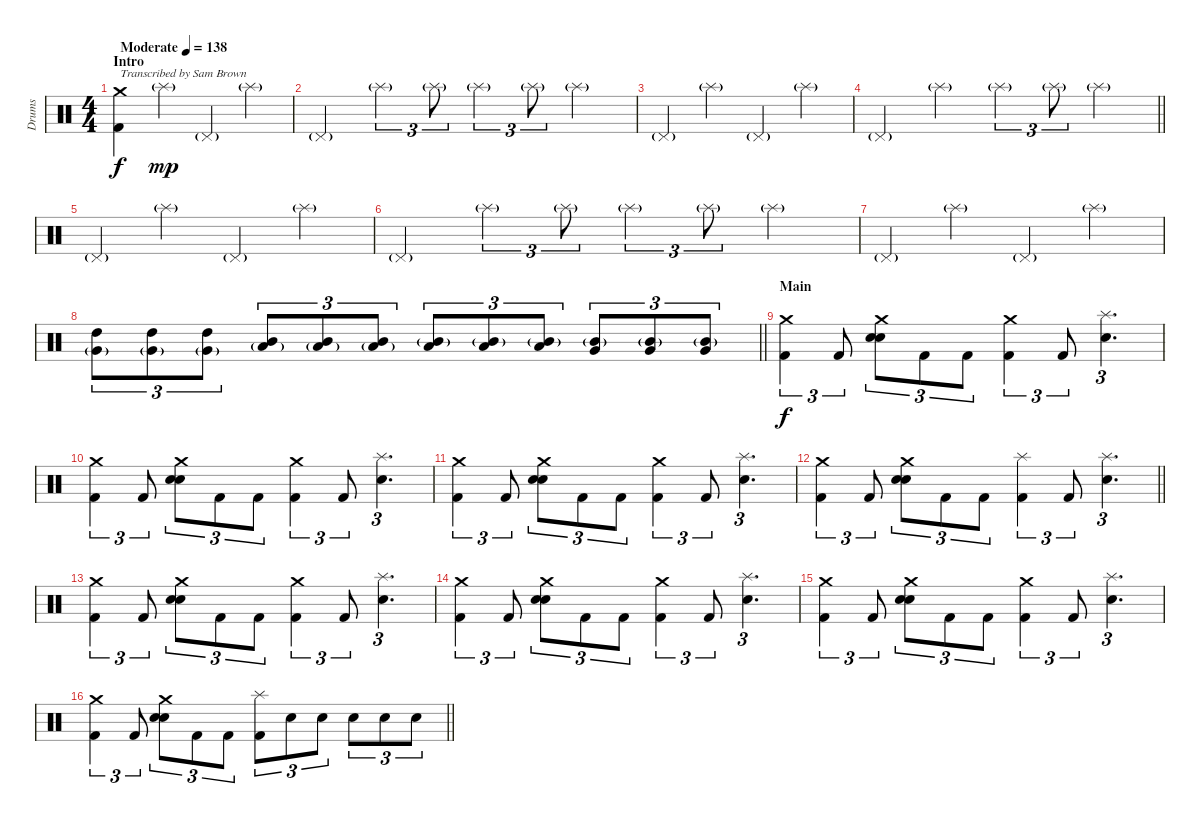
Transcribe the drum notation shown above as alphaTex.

\track ("Drums" "Drums") {instrument percussion}
\staff {score}
\articulation defaults
\ts (4 4)
\section ("" "Intro")
\tempo (138 "Moderate")
\clef neutral
\ks c
("Kick (hit) 2" "Crash medium (hit)").4{txt "Transcribed by Sam Brown" dy f} "Splash (hit)"{g}.4{dy mp} "Pedal Hi-Hat (hit)"{g}.4 "Splash (hit)"{g}.4 |
"Pedal Hi-Hat (hit)"{g}.4 "Splash (hit)"{g}.4{tu (3 2)} "Splash (hit)"{g}.8{tu (3 2)} "Splash (hit)"{g}.4{tu (3 2)} "Splash (hit)"{g}.8{tu (3 2)} "Splash (hit)"{g}.4 |
"Pedal Hi-Hat (hit)"{g}.4 "Splash (hit)"{g}.4 "Pedal Hi-Hat (hit)"{g}.4 "Splash (hit)"{g}.4 |
\barLineRight lightlight "Pedal Hi-Hat (hit)"{g}.4 "Splash (hit)"{g}.4 "Splash (hit)"{g}.4{tu (3 2)} "Splash (hit)"{g}.8{tu (3 2)} "Splash (hit)"{g}.4
|
\section ("" "")
"Pedal Hi-Hat (hit)"{g}.4 "Splash (hit)"{g}.4 "Pedal Hi-Hat (hit)"{g}.4 "Splash (hit)"{g}.4 |
"Pedal Hi-Hat (hit)"{g}.4 "Splash (hit)"{g}.4{tu (3 2)} "Splash (hit)"{g}.8{tu (3 2)} "Splash (hit)"{g}.4{tu (3 2)} "Splash (hit)"{g}.8{tu (3 2)} "Splash (hit)"{g}.4 |
"Pedal Hi-Hat (hit)"{g}.4 "Splash (hit)"{g}.4 "Pedal Hi-Hat (hit)"{g}.4 "Splash (hit)"{g}.4 |
\barLineRight lightlight
("High Tom (hit)" "Very Low Tom (hit)"{g}).8{tu (3 2)} ("High Tom (hit)" "Very Low Tom (hit)"{g}).8{tu (3 2)} ("High Tom (hit)" "Very Low Tom (hit)"{g}).8{tu (3 2)} ("Mid Tom (hit)" "Low Tom (hit)"{g}).8{tu (3 2)} ("Mid Tom (hit)" "Low Tom (hit)"{g}).8{tu (3 2)} ("Mid Tom (hit)" "Low Tom (hit)"{g}).8{tu (3 2)} ("Low Tom (hit)" "Mid Tom (hit)"{g}).8{tu (3 2)} ("Low Tom (hit)" "Mid Tom (hit)"{g}).8{tu (3 2)} ("Low Tom (hit)" "Mid Tom (hit)"{g}).8{tu (3 2)} ("Very Low Tom (hit)" "Mid Tom (hit)"{g}).8{tu (3 2)} ("Very Low Tom (hit)" "Mid Tom (hit)"{g}).8{tu (3 2)} ("Very Low Tom (hit)" "Mid Tom (hit)"{g}).8{tu (3 2)} |
\section ("" "Main")
("Kick (hit) 2" "Crash medium (hit)").4{tu (3 2) dy f} "Kick (hit) 2".8{tu (3 2)} ("Snare (hit) 2" "Snare (hit) 2" "Crash medium (hit)").8{tu (3 2)} "Kick (hit) 2".8{tu (3 2)} "Kick (hit) 2".8{tu (3 2)} ("Kick (hit) 2" "Crash medium (hit)").4{tu (3 2)} "Kick (hit) 2".8{tu (3 2)} ("Snare (hit) 2" "Splash (hit)").4{d tu (3 2)} |
("Kick (hit) 2" "Crash medium (hit)").4{tu (3 2)} "Kick (hit) 2".8{tu (3 2)} ("Snare (hit) 2" "Snare (hit) 2" "Crash medium (hit)").8{tu (3 2)} "Kick (hit) 2".8{tu (3 2)} "Kick (hit) 2".8{tu (3 2)} ("Kick (hit) 2" "Crash medium (hit)").4{tu (3 2)} "Kick (hit) 2".8{tu (3 2)} ("Snare (hit) 2" "Splash (hit)").4{d tu (3 2)} |
("Kick (hit) 2" "Crash medium (hit)").4{tu (3 2)} "Kick (hit) 2".8{tu (3 2)} ("Snare (hit) 2" "Snare (hit) 2" "Crash medium (hit)").8{tu (3 2)} "Kick (hit) 2".8{tu (3 2)} "Kick (hit) 2".8{tu (3 2)} ("Kick (hit) 2" "Crash medium (hit)").4{tu (3 2)} "Kick (hit) 2".8{tu (3 2)} ("Snare (hit) 2" "Splash (hit)").4{d tu (3 2)} |
\barLineRight lightlight
("Kick (hit) 2" "Crash medium (hit)").4{tu (3 2)} "Kick (hit) 2".8{tu (3 2)} ("Snare (hit) 2" "Snare (hit) 2" "Crash medium (hit)").8{tu (3 2)} "Kick (hit) 2".8{tu (3 2)} "Kick (hit) 2".8{tu (3 2)} ("Kick (hit) 2" "Splash (hit)").4{tu (3 2)} "Kick (hit) 2".8{tu (3 2)} ("Snare (hit) 2" "Splash (hit)").4{d tu (3 2)} |
\section ("" "")
("Kick (hit) 2" "Crash medium (hit)").4{tu (3 2)} "Kick (hit) 2".8{tu (3 2)} ("Snare (hit) 2" "Snare (hit) 2" "Crash medium (hit)").8{tu (3 2)} "Kick (hit) 2".8{tu (3 2)} "Kick (hit) 2".8{tu (3 2)} ("Kick (hit) 2" "Crash medium (hit)").4{tu (3 2)} "Kick (hit) 2".8{tu (3 2)} ("Snare (hit) 2" "Splash (hit)").4{d tu (3 2)} |
("Kick (hit) 2" "Crash medium (hit)").4{tu (3 2)} "Kick (hit) 2".8{tu (3 2)} ("Snare (hit) 2" "Snare (hit) 2" "Crash medium (hit)").8{tu (3 2)} "Kick (hit) 2".8{tu (3 2)} "Kick (hit) 2".8{tu (3 2)} ("Kick (hit) 2" "Crash medium (hit)").4{tu (3 2)} "Kick (hit) 2".8{tu (3 2)} ("Snare (hit) 2" "Splash (hit)").4{d tu (3 2)} |
("Kick (hit) 2" "Crash medium (hit)").4{tu (3 2)} "Kick (hit) 2".8{tu (3 2)} ("Snare (hit) 2" "Snare (hit) 2" "Crash medium (hit)").8{tu (3 2)} "Kick (hit) 2".8{tu (3 2)} "Kick (hit) 2".8{tu (3 2)} ("Kick (hit) 2" "Crash medium (hit)").4{tu (3 2)} "Kick (hit) 2".8{tu (3 2)} ("Snare (hit) 2" "Splash (hit)").4{d tu (3 2)} |
\barLineRight lightlight
("Kick (hit) 2" "Crash medium (hit)").4{tu (3 2)} "Kick (hit) 2".8{tu (3 2)} ("Snare (hit) 2" "Snare (hit) 2" "Crash medium (hit)").8{tu (3 2)} "Kick (hit) 2".8{tu (3 2)} "Kick (hit) 2".8{tu (3 2)} ("Kick (hit) 2" "Splash (hit)").8{tu (3 2)} "Snare (hit) 2".8{tu (3 2)} "Snare (hit) 2".8{tu (3 2)} "Snare (hit) 2".8{tu (3 2)} "Snare (hit) 2".8{tu (3 2)} "Snare (hit) 2".8{tu (3 2)}
